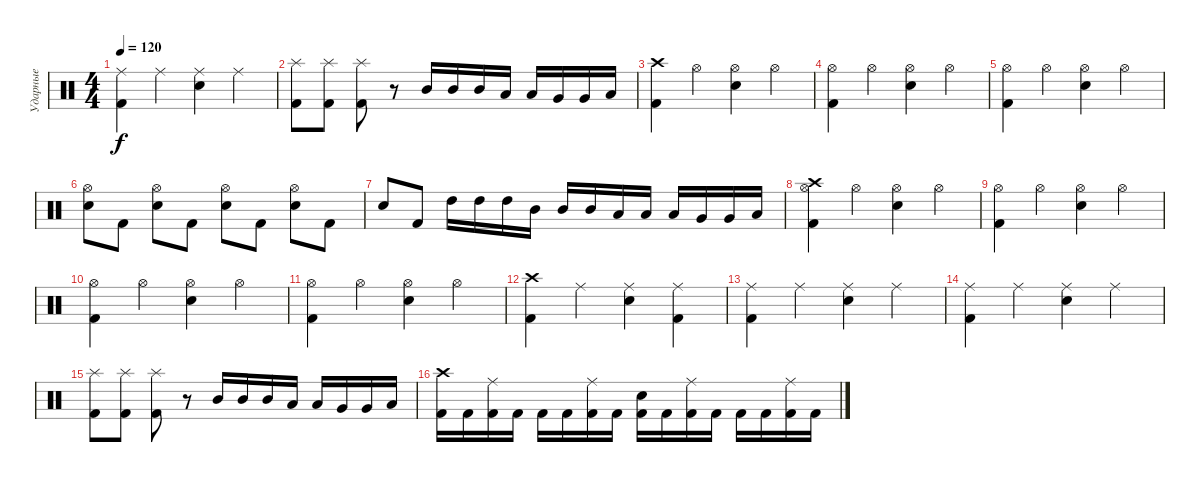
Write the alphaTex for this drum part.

\track ("Ударные" "Ударные") {instrument percussion}
\staff {score}
\articulation defaults
\ts (4 4)
\tempo 120
\clef neutral
\ks c
("Ride (middle)" "Kick (hit) 2").4{dy f} "Ride (middle)".4 ("Ride (middle)" "Electric Snare (hit)").4 "Ride (middle)".4 |
("Splash (hit)" "Kick (hit) 2").8 ("Splash (hit)" "Kick (hit) 2").8 ("Splash (hit)" "Kick (hit) 2").8 r.8 "Mid Tom (hit)".16 "Mid Tom (hit)".16 "Mid Tom (hit)".16 "Low Tom (hit)".16 "Low Tom (hit)".16 "Very Low Tom (hit)".16 "Very Low Tom (hit)".16 "Low Floor Tom (hit)".16 |
("Kick (hit) 2" "Crash high (hit)").4 "Hi-Hat (open)".4 ("Hi-Hat (open)" "Electric Snare (hit)").4 "Hi-Hat (open)".4 |
("Kick (hit) 2" "Hi-Hat (open)").4 "Hi-Hat (open)".4 ("Hi-Hat (open)" "Electric Snare (hit)").4 "Hi-Hat (open)".4 |
("Kick (hit) 2" "Hi-Hat (open)").4 "Hi-Hat (open)".4 ("Hi-Hat (open)" "Electric Snare (hit)").4 "Hi-Hat (open)".4 |
("Electric Snare (hit)" "Hi-Hat (open)").8 "Kick (hit) 2".8 ("Electric Snare (hit)" "Hi-Hat (open)").8 "Kick (hit) 2".8 ("Electric Snare (hit)" "Hi-Hat (open)").8 "Kick (hit) 2".8 ("Electric Snare (hit)" "Hi-Hat (open)").8 "Kick (hit) 2".8 |
"Electric Snare (hit)".8 "Kick (hit) 2".8 "High Tom (hit)".16 "High Tom (hit)".16 "High Tom (hit)".16 "Mid Tom (hit)".16 "Mid Tom (hit)".16 "Mid Tom (hit)".16 "Low Tom (hit)".16 "Low Tom (hit)".16 "Low Tom (hit)".16 "Very Low Tom (hit)".16 "Very Low Tom (hit)".16 "Low Floor Tom (hit)".16 |
("Kick (hit) 2" "Hi-Hat (open)" "Crash high (hit)").4 "Hi-Hat (open)".4 ("Hi-Hat (open)" "Electric Snare (hit)").4 "Hi-Hat (open)".4 |
("Kick (hit) 2" "Hi-Hat (open)").4 "Hi-Hat (open)".4 ("Hi-Hat (open)" "Electric Snare (hit)").4 "Hi-Hat (open)".4 |
("Kick (hit) 2" "Hi-Hat (open)").4 "Hi-Hat (open)".4 ("Hi-Hat (open)" "Electric Snare (hit)").4 "Hi-Hat (open)".4 |
("Kick (hit) 2" "Hi-Hat (open)").4 "Hi-Hat (open)".4 ("Hi-Hat (open)" "Electric Snare (hit)").4 "Hi-Hat (open)".4 |
("Kick (hit) 2" "Crash high (hit)").4 "Ride (middle)".4 ("Ride (middle)" "Electric Snare (hit)").4 ("Ride (middle)" "Kick (hit) 2").4 |
("Kick (hit) 2" "Ride (middle)").4 "Ride (middle)".4 ("Ride (middle)" "Electric Snare (hit)").4 "Ride (middle)".4 |
("Kick (hit) 2" "Ride (middle)").4 "Ride (middle)".4 ("Ride (middle)" "Electric Snare (hit)").4 "Ride (middle)".4 |
("Splash (hit)" "Kick (hit) 2").8 ("Splash (hit)" "Kick (hit) 2").8 ("Splash (hit)" "Kick (hit) 2").8 r.8 "Mid Tom (hit)".16 "Mid Tom (hit)".16 "Mid Tom (hit)".16 "Low Tom (hit)".16 "Low Tom (hit)".16 "Very Low Tom (hit)".16 "Very Low Tom (hit)".16 "Low Floor Tom (hit)".16 |
("Kick (hit) 2" "Crash high (hit)").16 "Kick (hit) 2".16 ("Kick (hit) 2" "Ride (middle)").16 "Kick (hit) 2".16 "Kick (hit) 2".16 "Kick (hit) 2".16 ("Kick (hit) 2" "Ride (middle)").16 "Kick (hit) 2".16 ("Kick (hit) 2" "Electric Snare (hit)").16 "Kick (hit) 2".16 ("Kick (hit) 2" "Ride (middle)").16 "Kick (hit) 2".16 "Kick (hit) 2".16 "Kick (hit) 2".16 ("Kick (hit) 2" "Ride (middle)").16 "Kick (hit) 2".16
